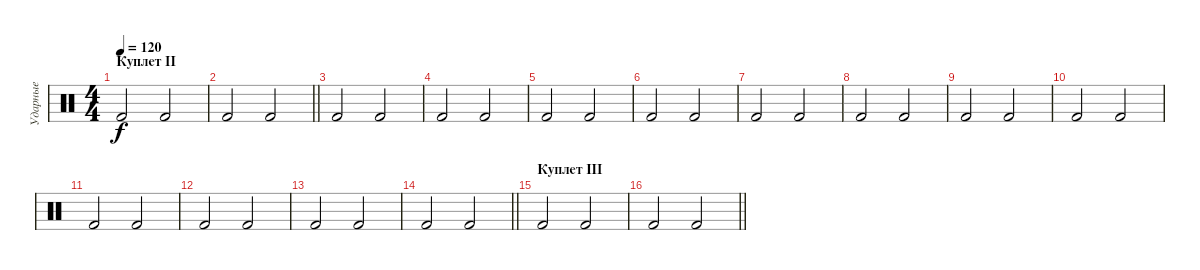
\track ("Ударные" "Ударные") {instrument percussion}
\staff {score}
\articulation defaults
\ts (4 4)
\section ("" "Куплет II")
\tempo 120
\clef neutral
\ks c "Kick (hit) 2".2{dy f} "Kick (hit) 2".2
|
\barLineRight lightlight "Kick (hit) 2".2 "Kick (hit) 2".2
|
"Kick (hit) 2".2 "Kick (hit) 2".2 |
"Kick (hit) 2".2 "Kick (hit) 2".2 |
"Kick (hit) 2".2 "Kick (hit) 2".2 |
"Kick (hit) 2".2 "Kick (hit) 2".2 |
"Kick (hit) 2".2 "Kick (hit) 2".2 |
"Kick (hit) 2".2 "Kick (hit) 2".2 |
"Kick (hit) 2".2 "Kick (hit) 2".2 |
"Kick (hit) 2".2 "Kick (hit) 2".2 |
"Kick (hit) 2".2 "Kick (hit) 2".2 |
"Kick (hit) 2".2 "Kick (hit) 2".2 |
"Kick (hit) 2".2 "Kick (hit) 2".2 |
\barLineRight lightlight "Kick (hit) 2".2 "Kick (hit) 2".2
|
\section ("" "Куплет III")
"Kick (hit) 2".2 "Kick (hit) 2".2 |
\barLineRight lightlight "Kick (hit) 2".2 "Kick (hit) 2".2
